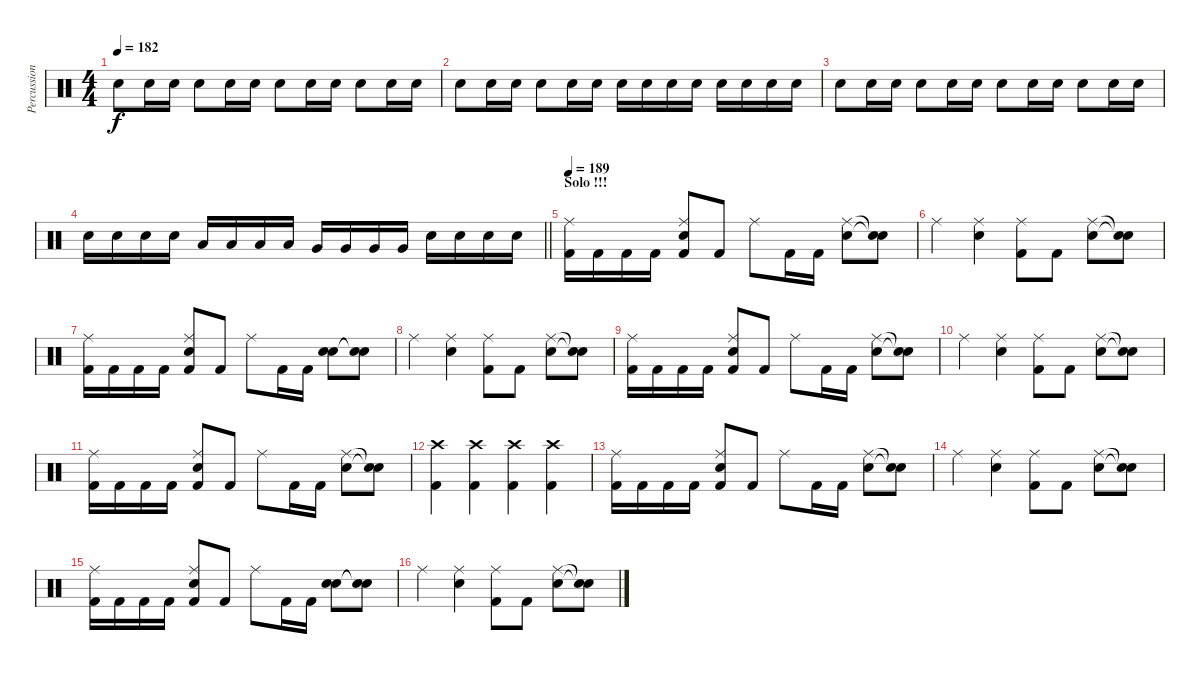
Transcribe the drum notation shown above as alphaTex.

\track ("Percussion" "Percussion") {instrument percussion}
\staff {score}
\articulation defaults
\ts (4 4)
\tempo 182
\clef neutral
\ks c "Electric Snare (hit)".8{dy f} "Electric Snare (hit)".16 "Electric Snare (hit)".16 "Electric Snare (hit)".8 "Electric Snare (hit)".16 "Electric Snare (hit)".16 "Electric Snare (hit)".8 "Electric Snare (hit)".16 "Electric Snare (hit)".16 "Electric Snare (hit)".8 "Electric Snare (hit)".16 "Electric Snare (hit)".16
|
"Electric Snare (hit)".8 "Electric Snare (hit)".16 "Electric Snare (hit)".16 "Electric Snare (hit)".8 "Electric Snare (hit)".16 "Electric Snare (hit)".16 "Electric Snare (hit)".16 "Electric Snare (hit)".16 "Electric Snare (hit)".16 "Electric Snare (hit)".16 "Electric Snare (hit)".16 "Electric Snare (hit)".16 "Electric Snare (hit)".16 "Electric Snare (hit)".16 |
"Electric Snare (hit)".8 "Electric Snare (hit)".16 "Electric Snare (hit)".16 "Electric Snare (hit)".8 "Electric Snare (hit)".16 "Electric Snare (hit)".16 "Electric Snare (hit)".8 "Electric Snare (hit)".16 "Electric Snare (hit)".16 "Electric Snare (hit)".8 "Electric Snare (hit)".16 "Electric Snare (hit)".16 |
\barLineRight lightlight "Electric Snare (hit)".16 "Electric Snare (hit)".16 "Electric Snare (hit)".16 "Electric Snare (hit)".16 "Low Tom (hit)".16 "Low Tom (hit)".16 "Low Tom (hit)".16 "Low Tom (hit)".16 "Very Low Tom (hit)".16 "Very Low Tom (hit)".16 "Very Low Tom (hit)".16 "Very Low Tom (hit)".16 "Electric Snare (hit)".16 "Electric Snare (hit)".16 "Electric Snare (hit)".16 "Electric Snare (hit)".16
|
\section ("" "Solo !!!")
\tempo 189
("Ride (middle)" "Kick (hit) 2").16 "Kick (hit) 2".16 "Kick (hit) 2".16 "Kick (hit) 2".16 ("Ride (middle)" "Electric Snare (hit)" "Kick (hit) 2").8 "Kick (hit) 2".8 "Ride (middle)".8 "Kick (hit) 2".16 "Kick (hit) 2".16 ("Ride (middle)" "Electric Snare (hit)").8 ("Snare (hit)"{t} "Snare (hit)"{t}).8 |
"Ride (middle)".4 ("Ride (middle)" "Electric Snare (hit)").4 ("Ride (middle)" "Kick (hit) 2").8 "Kick (hit) 2".8 ("Ride (middle)" "Electric Snare (hit)").8 ("Snare (hit)"{t} "Snare (hit)"{t}).8 |
("Ride (middle)" "Kick (hit) 2").16 "Kick (hit) 2".16 "Kick (hit) 2".16 "Kick (hit) 2".16 ("Ride (middle)" "Electric Snare (hit)" "Kick (hit) 2").8 "Kick (hit) 2".8 "Ride (middle)".8 "Kick (hit) 2".16 "Kick (hit) 2".16 ("Snare (hit)" "Electric Snare (hit)").8 ("Snare (hit)"{t} "Snare (hit)"{t}).8 |
"Ride (middle)".4 ("Ride (middle)" "Electric Snare (hit)").4 ("Ride (middle)" "Kick (hit) 2").8 "Kick (hit) 2".8 ("Ride (middle)" "Electric Snare (hit)").8 ("Snare (hit)"{t} "Snare (hit)"{t}).8 |
("Ride (middle)" "Kick (hit) 2").16 "Kick (hit) 2".16 "Kick (hit) 2".16 "Kick (hit) 2".16 ("Ride (middle)" "Electric Snare (hit)" "Kick (hit) 2").8 "Kick (hit) 2".8 "Ride (middle)".8 "Kick (hit) 2".16 "Kick (hit) 2".16 ("Ride (middle)" "Electric Snare (hit)").8 ("Snare (hit)"{t} "Snare (hit)"{t}).8 |
"Ride (middle)".4 ("Ride (middle)" "Electric Snare (hit)").4 ("Ride (middle)" "Kick (hit) 2").8 "Kick (hit) 2".8 ("Ride (middle)" "Electric Snare (hit)").8 ("Snare (hit)"{t} "Snare (hit)"{t}).8 |
("Ride (middle)" "Kick (hit) 2").16 "Kick (hit) 2".16 "Kick (hit) 2".16 "Kick (hit) 2".16 ("Ride (middle)" "Electric Snare (hit)" "Kick (hit) 2").8 "Kick (hit) 2".8 "Ride (middle)".8 "Kick (hit) 2".16 "Kick (hit) 2".16 ("Ride (middle)" "Electric Snare (hit)").8 ("Snare (hit)"{t} "Snare (hit)"{t}).8 |
("Crash high (hit)" "Kick (hit) 2").4 ("Crash high (hit)" "Kick (hit) 2").4 ("Crash high (hit)" "Kick (hit) 2").4 ("Crash high (hit)" "Kick (hit) 2").4 |
("Ride (middle)" "Kick (hit) 2").16 "Kick (hit) 2".16 "Kick (hit) 2".16 "Kick (hit) 2".16 ("Ride (middle)" "Electric Snare (hit)" "Kick (hit) 2").8 "Kick (hit) 2".8 "Ride (middle)".8 "Kick (hit) 2".16 "Kick (hit) 2".16 ("Ride (middle)" "Electric Snare (hit)").8 ("Snare (hit)"{t} "Snare (hit)"{t}).8 |
"Ride (middle)".4 ("Ride (middle)" "Electric Snare (hit)").4 ("Ride (middle)" "Kick (hit) 2").8 "Kick (hit) 2".8 ("Ride (middle)" "Electric Snare (hit)").8 ("Snare (hit)"{t} "Snare (hit)"{t}).8 |
("Ride (middle)" "Kick (hit) 2").16 "Kick (hit) 2".16 "Kick (hit) 2".16 "Kick (hit) 2".16 ("Ride (middle)" "Electric Snare (hit)" "Kick (hit) 2").8 "Kick (hit) 2".8 "Ride (middle)".8 "Kick (hit) 2".16 "Kick (hit) 2".16 ("Snare (hit)" "Electric Snare (hit)").8 ("Snare (hit)"{t} "Snare (hit)"{t}).8 |
"Ride (middle)".4 ("Ride (middle)" "Electric Snare (hit)").4 ("Ride (middle)" "Kick (hit) 2").8 "Kick (hit) 2".8 ("Ride (middle)" "Electric Snare (hit)").8 ("Snare (hit)"{t} "Snare (hit)"{t}).8
